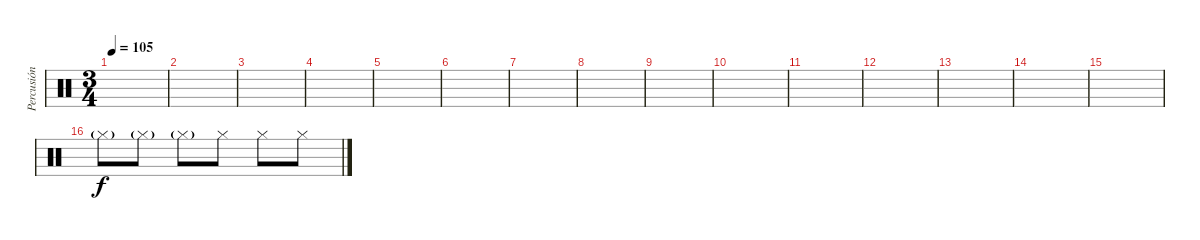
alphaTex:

\track ("Percusión" "Percusión") {instrument percussion}
\staff {score}
\articulation defaults
\ts (3 4)
\tempo 105
\clef neutral
\ks c
|
|
|
|
|
|
|
|
|
|
|
|
|
|
|
"Hi-Hat (closed)"{g}.8 "Hi-Hat (closed)"{g}.8 "Hi-Hat (closed)"{g}.8 "Hi-Hat (closed)".8{dy f} "Hi-Hat (closed)".8 "Hi-Hat (closed)".8
